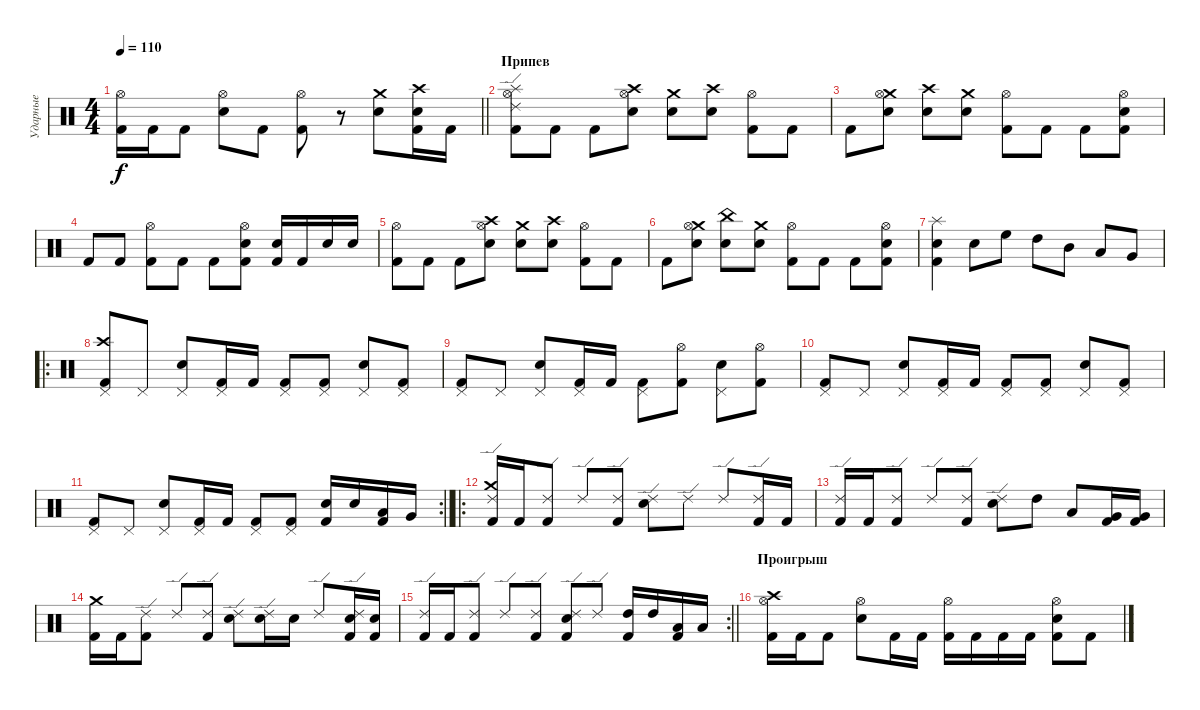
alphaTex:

\track ("Ударные" "Ударные") {instrument percussion}
\staff {score}
\articulation defaults
\ts (4 4)
\tempo 110
\clef neutral
\barLineRight lightlight
\ks c
("Hi-Hat (open)" "Kick (hit) 2").16{dy f} "Kick (hit) 2".16 "Kick (hit) 2".8 ("Hi-Hat (open)" "Snare (hit) 2").8 "Kick (hit) 2".8 ("Hi-Hat (open)" "Kick (hit) 2").8 r.8 ("Crash medium (hit)" "Snare (hit) 2").8 ("Crash high (hit)" "Snare (hit) 2" "Kick (hit) 2").16 "Kick (hit) 2".16 |
\section ("" "Припев")
("Kick (hit) 2" "Ride (edge) 2" "Splash (hit)" "Hi-Hat (open)").8 "Kick (hit) 2".8 "Kick (hit) 2".8 ("Crash high (hit)" "Snare (hit) 2" "Hi-Hat (open)").8 ("Crash medium (hit)" "Snare (hit) 2").8 ("Crash high (hit)" "Snare (hit) 2").8 ("Kick (hit) 2" "Hi-Hat (open)").8 "Kick (hit) 2".8 |
"Kick (hit) 2".8 ("Crash medium (hit)" "Snare (hit) 2" "Hi-Hat (open)").8 ("Crash high (hit)" "Snare (hit) 2").8 ("Crash medium (hit)" "Snare (hit) 2").8 ("Kick (hit) 2" "Hi-Hat (open)").8 "Kick (hit) 2".8 "Kick (hit) 2".8 ("Kick (hit) 2" "Snare (hit) 2" "Hi-Hat (open)").8 |
"Kick (hit) 2".8 "Kick (hit) 2".8 ("Kick (hit) 2" "Hi-Hat (open)").8 "Kick (hit) 2".8 "Kick (hit) 2".8 ("Kick (hit) 2" "Snare (hit) 2" "Hi-Hat (open)").8 ("Kick (hit) 2" "Snare (hit) 2").16 "Kick (hit) 2".16 "Snare (hit) 2".16 "Snare (hit) 2".16 |
("Kick (hit) 2" "Hi-Hat (open)").8 "Kick (hit) 2".8 "Kick (hit) 2".8 ("Crash high (hit)" "Snare (hit) 2" "Hi-Hat (open)").8 ("Crash medium (hit)" "Snare (hit) 2").8 ("Crash high (hit)" "Snare (hit) 2").8 ("Kick (hit) 2" "Hi-Hat (open)").8 "Kick (hit) 2".8 |
"Kick (hit) 2".8 ("Crash medium (hit)" "Snare (hit) 2" "Hi-Hat (open)").8 ("China (hit)" "Snare (hit) 2").8 ("Crash medium (hit)" "Snare (hit) 2").8 ("Kick (hit) 2" "Hi-Hat (open)").8 "Kick (hit) 2".8 "Kick (hit) 2".8 ("Kick (hit) 2" "Snare (hit) 2" "Hi-Hat (open)").8 |
("Kick (hit) 2" "Snare (hit) 2" "Splash (hit)").4 "Snare (hit) 2".8 "High Floor Tom (hit)".8 "High Tom (hit)".8 "Mid Tom (hit)".8 "Low Tom (hit)".8 "Very Low Tom (hit)".8 |
\ro
("Crash high (hit)" "Pedal Hi-Hat (hit)" "Kick (hit) 2").8 "Pedal Hi-Hat (hit)".8 ("Pedal Hi-Hat (hit)" "Snare (hit) 2").8 ("Pedal Hi-Hat (hit)" "Kick (hit) 2").16 "Kick (hit) 2".16 ("Pedal Hi-Hat (hit)" "Kick (hit) 2").8 ("Pedal Hi-Hat (hit)" "Kick (hit) 2").8 ("Pedal Hi-Hat (hit)" "Snare (hit) 2").8 ("Pedal Hi-Hat (hit)" "Kick (hit) 2").8 |
("Pedal Hi-Hat (hit)" "Kick (hit) 2").8 "Pedal Hi-Hat (hit)".8 ("Pedal Hi-Hat (hit)" "Snare (hit) 2").8 ("Pedal Hi-Hat (hit)" "Kick (hit) 2").16 "Kick (hit) 2".16 ("Pedal Hi-Hat (hit)" "Kick (hit) 2").8 ("Hi-Hat (open)" "Kick (hit) 2").8 ("Pedal Hi-Hat (hit)" "Snare (hit) 2").8 ("Hi-Hat (open)" "Kick (hit) 2").8 |
("Pedal Hi-Hat (hit)" "Kick (hit) 2").8 "Pedal Hi-Hat (hit)".8 ("Pedal Hi-Hat (hit)" "Snare (hit) 2").8 ("Pedal Hi-Hat (hit)" "Kick (hit) 2").16 "Kick (hit) 2".16 ("Pedal Hi-Hat (hit)" "Kick (hit) 2").8 ("Pedal Hi-Hat (hit)" "Kick (hit) 2").8 ("Pedal Hi-Hat (hit)" "Snare (hit) 2").8 ("Pedal Hi-Hat (hit)" "Kick (hit) 2").8 |
\rc 2
\barLineRight lightlight
("Pedal Hi-Hat (hit)" "Kick (hit) 2").8 "Pedal Hi-Hat (hit)".8 ("Pedal Hi-Hat (hit)" "Snare (hit) 2").8 ("Pedal Hi-Hat (hit)" "Kick (hit) 2").16 "Kick (hit) 2".16 ("Pedal Hi-Hat (hit)" "Kick (hit) 2").8 ("Pedal Hi-Hat (hit)" "Kick (hit) 2").8 ("Snare (hit) 2" "Kick (hit) 2").16 "Snare (hit) 2".16 ("Low Tom (hit)" "Kick (hit) 2").16 "Very Low Tom (hit)".16 |
\ro
("Crash medium (hit)" "Ride (edge) 2" "Kick (hit) 2").16 "Kick (hit) 2".16 ("Ride (edge) 2" "Kick (hit) 2").8 "Ride (edge) 2".8 ("Ride (edge) 2" "Kick (hit) 2").8 ("Ride (edge) 2" "Snare (hit) 2").8 "Ride (edge) 2".8 "Ride (edge) 2".8 ("Ride (edge) 2" "Kick (hit) 2").16 "Kick (hit) 2".16 |
("Ride (edge) 2" "Kick (hit) 2").16 "Kick (hit) 2".16 ("Ride (edge) 2" "Kick (hit) 2").8 "Ride (edge) 2".8 ("Ride (edge) 2" "Kick (hit) 2").8 ("Ride (edge) 2" "Snare (hit) 2").8 "High Tom (hit)".8 "Low Tom (hit)".8 ("Very Low Tom (hit)" "Kick (hit) 2").16 ("Very Low Tom (hit)" "Kick (hit) 2").16 |
("Crash medium (hit)" "Kick (hit) 2").16 "Kick (hit) 2".16 ("Ride (edge) 2" "Kick (hit) 2").8 "Ride (edge) 2".8 ("Ride (edge) 2" "Kick (hit) 2").8 ("Ride (edge) 2" "Snare (hit) 2").8 ("Ride (edge) 2" "Snare (hit) 2").16 "Snare (hit) 2".16 "Ride (edge) 2".8 ("Ride (edge) 2" "Snare (hit) 2" "Kick (hit) 2").16 ("Snare (hit) 2" "Kick (hit) 2").16 |
\rc 2
\barLineRight lightlight
("Ride (edge) 2" "Kick (hit) 2").16 "Kick (hit) 2".16 ("Ride (edge) 2" "Kick (hit) 2").8 "Ride (edge) 2".8 ("Ride (edge) 2" "Kick (hit) 2").8 ("Ride (edge) 2" "Snare (hit) 2" "Kick (hit) 2").8 "Ride (edge) 2".8 ("High Tom (hit)" "Kick (hit) 2").16 "High Tom (hit)".16 ("Low Tom (hit)" "Kick (hit) 2").16 "Low Tom (hit)".16 |
\section ("" "Проигрыш")
("Crash high (hit)" "Hi-Hat (open)" "Kick (hit) 2").16 "Kick (hit) 2".16 "Kick (hit) 2".8 ("Hi-Hat (open)" "Snare (hit) 2").8 "Kick (hit) 2".16 "Kick (hit) 2".16 ("Hi-Hat (open)" "Kick (hit) 2").16 "Kick (hit) 2".16 "Kick (hit) 2".16 "Kick (hit) 2".16 ("Hi-Hat (open)" "Snare (hit) 2" "Kick (hit) 2").8 "Kick (hit) 2".8
